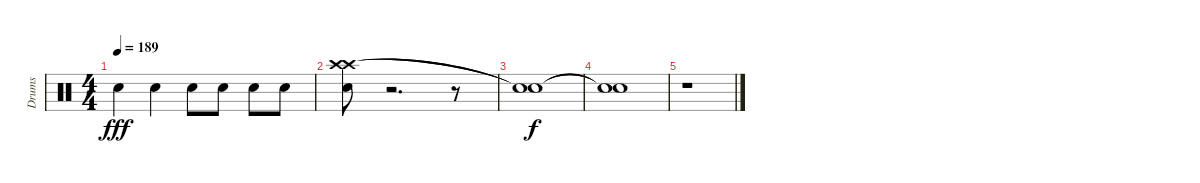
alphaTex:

\track ("Drums" "Drums") {instrument percussion}
\staff {score}
\articulation defaults
\ts (4 4)
\tempo 189
\clef neutral
\ks c "Snare (hit) 2".4{dy fff} "Snare (hit) 2".4 "Snare (hit) 2".8 "Snare (hit) 2".8 "Snare (hit) 2".8 "Snare (hit) 2".8
|
("Crash high (hit)" "Crash high (hit)" "Snare (hit) 2").8 r.2{d} r.8 |
("Snare (hit)"{t} "Snare (hit)"{t}).1{dy f} |
("Snare (hit)"{t} "Snare (hit)"{t}).1 |
r.1
